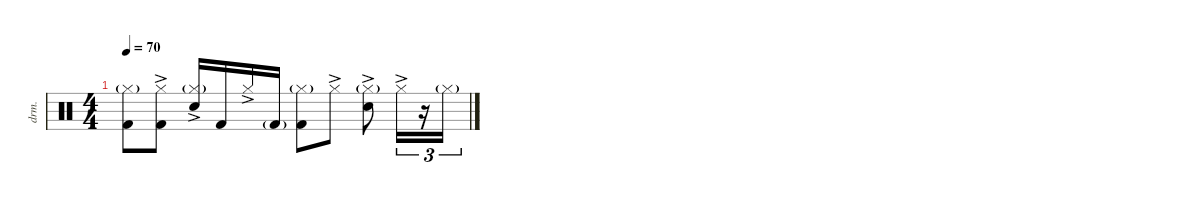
\defaultSystemsLayout 4
\hideDynamics
\bracketExtendMode nobrackets
\track ("Drumkit" "drm.") {instrument percussion}
\staff {score}
\articulation defaults
\ts (4 4)
\tempo 70
\clef neutral
\ks c
("Hi-Hat (closed)"{g} "Kick (hit) 2").8{dy mf beam Down} ("Hi-Hat (closed)"{ac} "Kick (hit) 2").8{beam Down} ("Hi-Hat (closed)"{g} "Snare (hit) 2"{ac}).16{beam Up} "Kick (hit) 2".16{beam Up} "Hi-Hat (closed)"{ac}.16{beam Up} "Kick (hit) 2"{g}.16{beam Up} ("Hi-Hat (closed)"{g} "Kick (hit) 2").8{beam Down} "Hi-Hat (closed)"{ac}.8{beam Down} ("Hi-Hat (closed)"{g} "Snare (hit) 2"{ac}).8{beam Down} "Hi-Hat (closed)"{ac}.16{tu (3 2) beam Down} r.16{tu (3 2) beam Down} "Hi-Hat (closed)"{g}.16{tu (3 2) beam Down}
